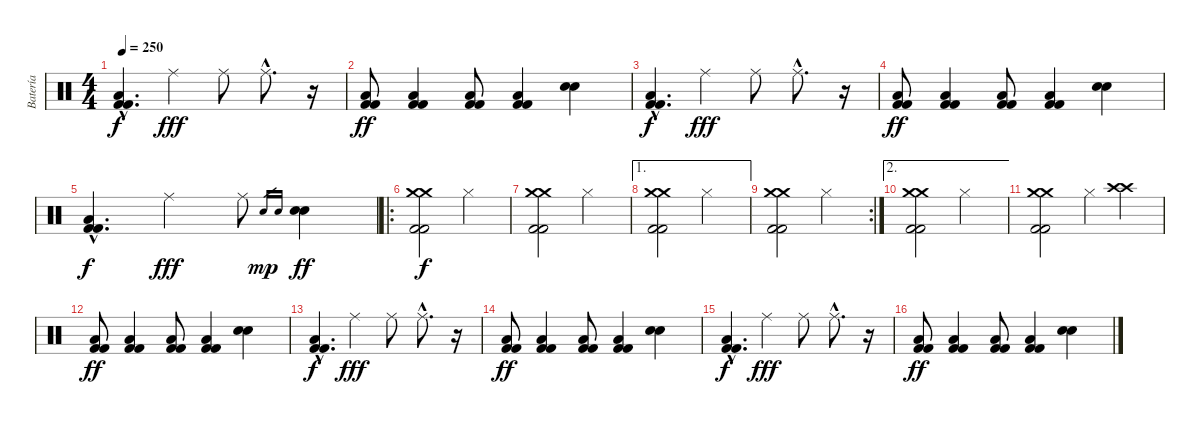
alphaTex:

\track ("Batería" "Batería") {instrument percussion}
\staff {score}
\articulation defaults
\ts (4 4)
\tempo 250
\clef neutral
\ks c
("Low Tom (hit)"{hac} "Kick (hit) 2"{hac} "Kick (hit) 2"{hac}).4{d dy f} "Ride (middle)".4{dy fff} "Ride (middle)".8 "Ride (middle)"{hac}.8{d} r.16 |
("Low Tom (hit)" "Kick (hit) 2" "Kick (hit) 2").8{dy ff} ("Low Tom (hit)" "Kick (hit) 2" "Kick (hit) 2").4 ("Low Tom (hit)" "Kick (hit) 2" "Kick (hit) 2").8 ("Low Tom (hit)" "Kick (hit) 2" "Kick (hit) 2").4 ("Electric Snare (hit)" "Electric Snare (hit)").4 |
("Low Tom (hit)"{hac} "Kick (hit) 2"{hac} "Kick (hit) 2"{hac}).4{d dy f} "Ride (middle)".4{dy fff} "Ride (middle)".8 "Ride (middle)"{hac}.8{d} r.16 |
("Low Tom (hit)" "Kick (hit) 2" "Kick (hit) 2").8{dy ff} ("Low Tom (hit)" "Kick (hit) 2" "Kick (hit) 2").4 ("Low Tom (hit)" "Kick (hit) 2" "Kick (hit) 2").8 ("Low Tom (hit)" "Kick (hit) 2" "Kick (hit) 2").4 ("Electric Snare (hit)" "Electric Snare (hit)").4 |
("Low Tom (hit)"{hac} "Kick (hit) 2"{hac} "Kick (hit) 2"{hac}).4{d dy f} "Ride (middle)".4{dy fff} "Ride (middle)".8 "Electric Snare (hit)".16{gr dy mp} "Electric Snare (hit)".16{gr} ("Electric Snare (hit)" "Electric Snare (hit)").4{dy ff} |
\ro
("Crash medium (hit)" "Crash medium (hit)" "Kick (hit) 2" "Kick (hit) 2").2{dy f} "Hi-Hat (closed)".2 |
("Crash medium (hit)" "Crash medium (hit)" "Kick (hit) 2" "Kick (hit) 2").2 "Hi-Hat (closed)".2 |
\ae 1
("Crash medium (hit)" "Crash medium (hit)" "Kick (hit) 2" "Kick (hit) 2").2 "Hi-Hat (closed)".2 |
\rc 2
("Crash medium (hit)" "Crash medium (hit)" "Kick (hit) 2" "Kick (hit) 2").2 "Hi-Hat (closed)".2 |
\ae 2
("Crash medium (hit)" "Crash medium (hit)" "Kick (hit) 2" "Kick (hit) 2").2 "Hi-Hat (closed)".2 |
("Crash medium (hit)" "Crash medium (hit)" "Kick (hit) 2" "Kick (hit) 2").2 "Hi-Hat (closed)".4 ("Crash high (hit)" "Crash high (hit)").4 |
("Low Tom (hit)" "Kick (hit) 2" "Kick (hit) 2").8{dy ff} ("Low Tom (hit)" "Kick (hit) 2" "Kick (hit) 2").4 ("Low Tom (hit)" "Kick (hit) 2" "Kick (hit) 2").8 ("Low Tom (hit)" "Kick (hit) 2" "Kick (hit) 2").4 ("Electric Snare (hit)" "Electric Snare (hit)").4 |
("Low Tom (hit)"{hac} "Kick (hit) 2"{hac} "Kick (hit) 2"{hac}).4{d dy f} "Ride (middle)".4{dy fff} "Ride (middle)".8 "Ride (middle)"{hac}.8{d} r.16 |
("Low Tom (hit)" "Kick (hit) 2" "Kick (hit) 2").8{dy ff} ("Low Tom (hit)" "Kick (hit) 2" "Kick (hit) 2").4 ("Low Tom (hit)" "Kick (hit) 2" "Kick (hit) 2").8 ("Low Tom (hit)" "Kick (hit) 2" "Kick (hit) 2").4 ("Electric Snare (hit)" "Electric Snare (hit)").4 |
("Low Tom (hit)"{hac} "Kick (hit) 2"{hac} "Kick (hit) 2"{hac}).4{d dy f} "Ride (middle)".4{dy fff} "Ride (middle)".8 "Ride (middle)"{hac}.8{d} r.16 |
("Low Tom (hit)" "Kick (hit) 2" "Kick (hit) 2").8{dy ff} ("Low Tom (hit)" "Kick (hit) 2" "Kick (hit) 2").4 ("Low Tom (hit)" "Kick (hit) 2" "Kick (hit) 2").8 ("Low Tom (hit)" "Kick (hit) 2" "Kick (hit) 2").4 ("Electric Snare (hit)" "Electric Snare (hit)").4
